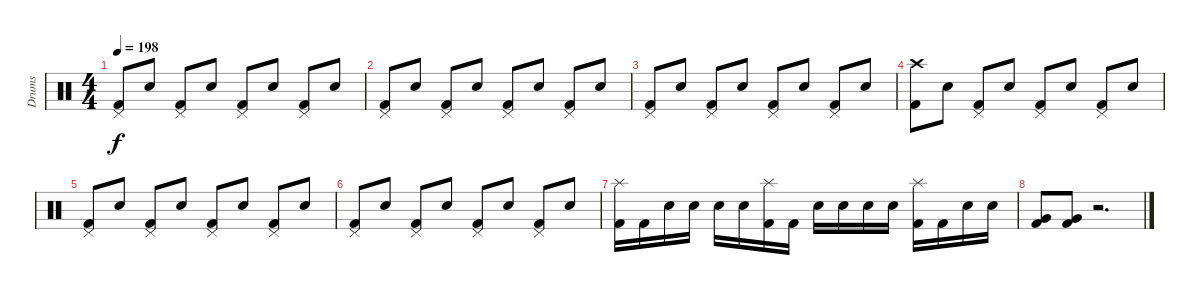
\track ("Drums" "Drums") {instrument percussion}
\staff {score}
\articulation defaults
\ts (4 4)
\tempo 198
\clef neutral
\ks c
("Pedal Hi-Hat (hit)" "Kick (hit) 2").8{dy f} "Electric Snare (hit)".8 ("Pedal Hi-Hat (hit)" "Kick (hit) 2").8 "Electric Snare (hit)".8 ("Pedal Hi-Hat (hit)" "Kick (hit) 2").8 "Electric Snare (hit)".8 ("Pedal Hi-Hat (hit)" "Kick (hit) 2").8 "Electric Snare (hit)".8 |
("Pedal Hi-Hat (hit)" "Kick (hit) 2").8 "Electric Snare (hit)".8 ("Pedal Hi-Hat (hit)" "Kick (hit) 2").8 "Electric Snare (hit)".8 ("Pedal Hi-Hat (hit)" "Kick (hit) 2").8 "Electric Snare (hit)".8 ("Pedal Hi-Hat (hit)" "Kick (hit) 2").8 "Electric Snare (hit)".8 |
("Pedal Hi-Hat (hit)" "Kick (hit) 2").8 "Electric Snare (hit)".8 ("Pedal Hi-Hat (hit)" "Kick (hit) 2").8 "Electric Snare (hit)".8 ("Pedal Hi-Hat (hit)" "Kick (hit) 2").8 "Electric Snare (hit)".8 ("Pedal Hi-Hat (hit)" "Kick (hit) 2").8 "Electric Snare (hit)".8 |
("Crash high (hit)" "Kick (hit) 2").8 "Electric Snare (hit)".8 ("Pedal Hi-Hat (hit)" "Kick (hit) 2").8 "Electric Snare (hit)".8 ("Pedal Hi-Hat (hit)" "Kick (hit) 2").8 "Electric Snare (hit)".8 ("Pedal Hi-Hat (hit)" "Kick (hit) 2").8 "Electric Snare (hit)".8 |
("Pedal Hi-Hat (hit)" "Kick (hit) 2").8 "Electric Snare (hit)".8 ("Pedal Hi-Hat (hit)" "Kick (hit) 2").8 "Electric Snare (hit)".8 ("Pedal Hi-Hat (hit)" "Kick (hit) 2").8 "Electric Snare (hit)".8 ("Pedal Hi-Hat (hit)" "Kick (hit) 2").8 "Electric Snare (hit)".8 |
("Pedal Hi-Hat (hit)" "Kick (hit) 2").8 "Electric Snare (hit)".8 ("Pedal Hi-Hat (hit)" "Kick (hit) 2").8 "Electric Snare (hit)".8 ("Pedal Hi-Hat (hit)" "Kick (hit) 2").8 "Electric Snare (hit)".8 ("Pedal Hi-Hat (hit)" "Kick (hit) 2").8 "Electric Snare (hit)".8 |
("Splash (hit)" "Kick (hit) 2").16 "Kick (hit) 2".16 "Electric Snare (hit)".16 "Electric Snare (hit)".16 "Electric Snare (hit)".16 "Electric Snare (hit)".16 ("Splash (hit)" "Kick (hit) 2").16 "Kick (hit) 2".16 "Electric Snare (hit)".16 "Electric Snare (hit)".16 "Electric Snare (hit)".16 "Electric Snare (hit)".16 ("Splash (hit)" "Kick (hit) 2").16 "Kick (hit) 2".16 "Electric Snare (hit)".16 "Electric Snare (hit)".16 |
("Very Low Tom (hit)" "Kick (hit) 2").8 ("Very Low Tom (hit)" "Kick (hit) 2").8 r.2{d}
